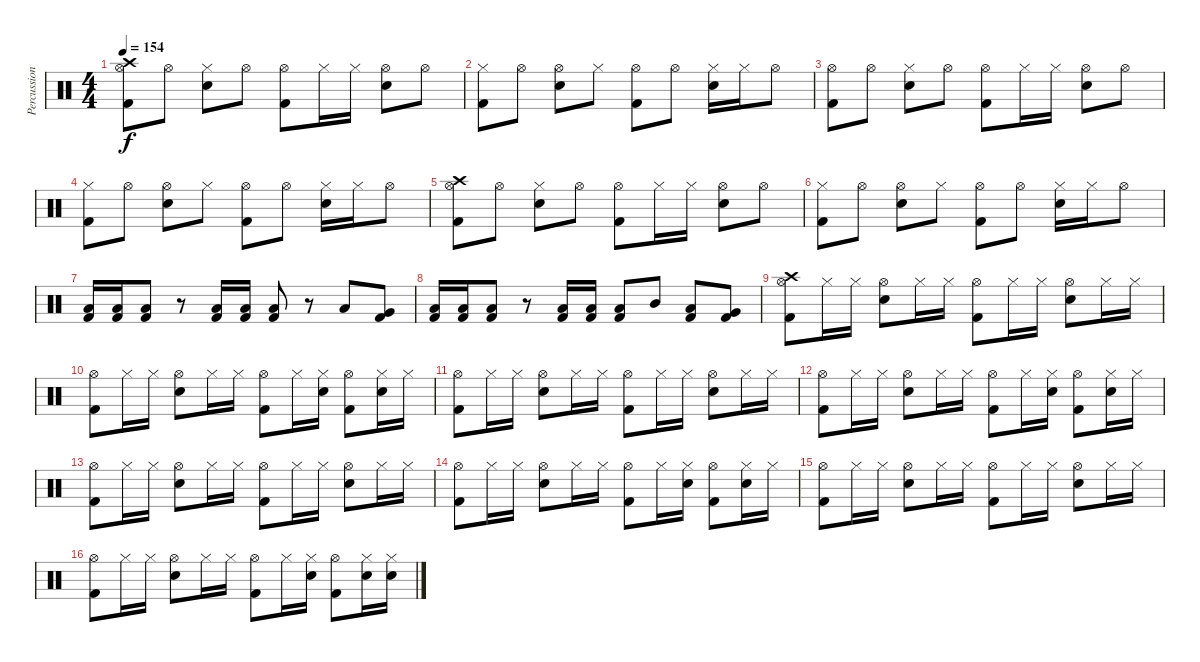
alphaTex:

\track ("Percussion" "Percussion") {instrument percussion}
\staff {score}
\articulation defaults
\ts (4 4)
\tempo 154
\clef neutral
\ks c
("Crash high (hit)" "Hi-Hat (open)" "Kick (hit) 2").8{dy f} "Hi-Hat (open)".8 ("Hi-Hat (closed)" "Snare (hit) 2").8 "Hi-Hat (open)".8 ("Hi-Hat (open)" "Kick (hit) 2").8 "Hi-Hat (closed)".16 "Hi-Hat (closed)".16 ("Hi-Hat (open)" "Snare (hit) 2").8 "Hi-Hat (open)".8 |
("Hi-Hat (closed)" "Kick (hit) 2").8 "Hi-Hat (open)".8 ("Hi-Hat (open)" "Snare (hit) 2").8 "Hi-Hat (closed)".8 ("Hi-Hat (open)" "Kick (hit) 2").8 "Hi-Hat (open)".8 ("Hi-Hat (closed)" "Snare (hit) 2").16 "Hi-Hat (closed)".16 "Hi-Hat (open)".8 |
("Hi-Hat (open)" "Kick (hit) 2").8 "Hi-Hat (open)".8 ("Hi-Hat (closed)" "Snare (hit) 2").8 "Hi-Hat (open)".8 ("Hi-Hat (open)" "Kick (hit) 2").8 "Hi-Hat (closed)".16 "Hi-Hat (closed)".16 ("Hi-Hat (open)" "Snare (hit) 2").8 "Hi-Hat (open)".8 |
("Hi-Hat (closed)" "Kick (hit) 2").8 "Hi-Hat (open)".8 ("Hi-Hat (open)" "Snare (hit) 2").8 "Hi-Hat (closed)".8 ("Hi-Hat (open)" "Kick (hit) 2").8 "Hi-Hat (open)".8 ("Hi-Hat (closed)" "Snare (hit) 2").16 "Hi-Hat (closed)".16 "Hi-Hat (open)".8 |
("Crash high (hit)" "Hi-Hat (open)" "Kick (hit) 2").8 "Hi-Hat (open)".8 ("Hi-Hat (closed)" "Snare (hit) 2").8 "Hi-Hat (open)".8 ("Hi-Hat (open)" "Kick (hit) 2").8 "Hi-Hat (closed)".16 "Hi-Hat (closed)".16 ("Hi-Hat (open)" "Snare (hit) 2").8 "Hi-Hat (open)".8 |
("Hi-Hat (closed)" "Kick (hit) 2").8 "Hi-Hat (open)".8 ("Hi-Hat (open)" "Snare (hit) 2").8 "Hi-Hat (closed)".8 ("Hi-Hat (open)" "Kick (hit) 2").8 "Hi-Hat (open)".8 ("Hi-Hat (closed)" "Snare (hit) 2").16 "Hi-Hat (closed)".16 "Hi-Hat (open)".8 |
("Low Tom (hit)" "Kick (hit) 2").16 ("Low Tom (hit)" "Kick (hit) 2").16 ("Low Tom (hit)" "Kick (hit) 2").8 r.8 ("Low Tom (hit)" "Kick (hit) 2").16 ("Low Tom (hit)" "Kick (hit) 2").16 ("Low Tom (hit)" "Kick (hit) 2").8 r.8 "Low Tom (hit)".8 ("Very Low Tom (hit)" "Kick (hit) 2").8 |
("Low Tom (hit)" "Kick (hit) 2").16 ("Low Tom (hit)" "Kick (hit) 2").16 ("Low Tom (hit)" "Kick (hit) 2").8 r.8 ("Low Tom (hit)" "Kick (hit) 2").16 ("Low Tom (hit)" "Kick (hit) 2").16 ("Low Tom (hit)" "Kick (hit) 2").8 "Mid Tom (hit)".8 ("Low Tom (hit)" "Kick (hit) 2").8 ("Very Low Tom (hit)" "Kick (hit) 2").8 |
\section ("" "")
("Crash high (hit)" "Hi-Hat (open)" "Kick (hit) 2").8 "Hi-Hat (closed)".16 "Hi-Hat (closed)".16 ("Hi-Hat (open)" "Snare (hit) 2").8 "Hi-Hat (closed)".16 "Hi-Hat (closed)".16 ("Hi-Hat (open)" "Kick (hit) 2").8 "Hi-Hat (closed)".16 "Hi-Hat (closed)".16 ("Hi-Hat (open)" "Snare (hit) 2").8 "Hi-Hat (closed)".16 "Hi-Hat (closed)".16 |
("Hi-Hat (open)" "Kick (hit) 2").8 "Hi-Hat (closed)".16 "Hi-Hat (closed)".16 ("Hi-Hat (open)" "Snare (hit) 2").8 "Hi-Hat (closed)".16 "Hi-Hat (closed)".16 ("Hi-Hat (open)" "Kick (hit) 2").8 "Hi-Hat (closed)".16 ("Hi-Hat (closed)" "Snare (hit) 2").16 ("Hi-Hat (open)" "Kick (hit) 2").8 ("Hi-Hat (closed)" "Snare (hit) 2").16 "Hi-Hat (closed)".16 |
("Hi-Hat (open)" "Kick (hit) 2").8 "Hi-Hat (closed)".16 "Hi-Hat (closed)".16 ("Hi-Hat (open)" "Snare (hit) 2").8 "Hi-Hat (closed)".16 "Hi-Hat (closed)".16 ("Hi-Hat (open)" "Kick (hit) 2").8 "Hi-Hat (closed)".16 "Hi-Hat (closed)".16 ("Hi-Hat (open)" "Snare (hit) 2").8 "Hi-Hat (closed)".16 "Hi-Hat (closed)".16 |
("Hi-Hat (open)" "Kick (hit) 2").8 "Hi-Hat (closed)".16 "Hi-Hat (closed)".16 ("Hi-Hat (open)" "Snare (hit) 2").8 "Hi-Hat (closed)".16 "Hi-Hat (closed)".16 ("Hi-Hat (open)" "Kick (hit) 2").8 "Hi-Hat (closed)".16 ("Hi-Hat (closed)" "Snare (hit) 2").16 ("Hi-Hat (open)" "Kick (hit) 2").8 ("Hi-Hat (closed)" "Snare (hit) 2").16 "Hi-Hat (closed)".16 |
("Hi-Hat (open)" "Kick (hit) 2").8 "Hi-Hat (closed)".16 "Hi-Hat (closed)".16 ("Hi-Hat (open)" "Snare (hit) 2").8 "Hi-Hat (closed)".16 "Hi-Hat (closed)".16 ("Hi-Hat (open)" "Kick (hit) 2").8 "Hi-Hat (closed)".16 "Hi-Hat (closed)".16 ("Hi-Hat (open)" "Snare (hit) 2").8 "Hi-Hat (closed)".16 "Hi-Hat (closed)".16 |
("Hi-Hat (open)" "Kick (hit) 2").8 "Hi-Hat (closed)".16 "Hi-Hat (closed)".16 ("Hi-Hat (open)" "Snare (hit) 2").8 "Hi-Hat (closed)".16 "Hi-Hat (closed)".16 ("Hi-Hat (open)" "Kick (hit) 2").8 "Hi-Hat (closed)".16 ("Hi-Hat (closed)" "Snare (hit) 2").16 ("Hi-Hat (open)" "Kick (hit) 2").8 ("Hi-Hat (closed)" "Snare (hit) 2").16 "Hi-Hat (closed)".16 |
("Hi-Hat (open)" "Kick (hit) 2").8 "Hi-Hat (closed)".16 "Hi-Hat (closed)".16 ("Hi-Hat (open)" "Snare (hit) 2").8 "Hi-Hat (closed)".16 "Hi-Hat (closed)".16 ("Hi-Hat (open)" "Kick (hit) 2").8 "Hi-Hat (closed)".16 "Hi-Hat (closed)".16 ("Hi-Hat (open)" "Snare (hit) 2").8 "Hi-Hat (closed)".16 "Hi-Hat (closed)".16 |
("Hi-Hat (open)" "Kick (hit) 2").8 "Hi-Hat (closed)".16 "Hi-Hat (closed)".16 ("Hi-Hat (open)" "Snare (hit) 2").8 "Hi-Hat (closed)".16 "Hi-Hat (closed)".16 ("Hi-Hat (open)" "Kick (hit) 2").8 "Hi-Hat (closed)".16 ("Hi-Hat (closed)" "Snare (hit) 2").16 ("Hi-Hat (open)" "Kick (hit) 2").8 ("Hi-Hat (closed)" "Snare (hit) 2").16 ("Hi-Hat (closed)" "Snare (hit) 2").16
